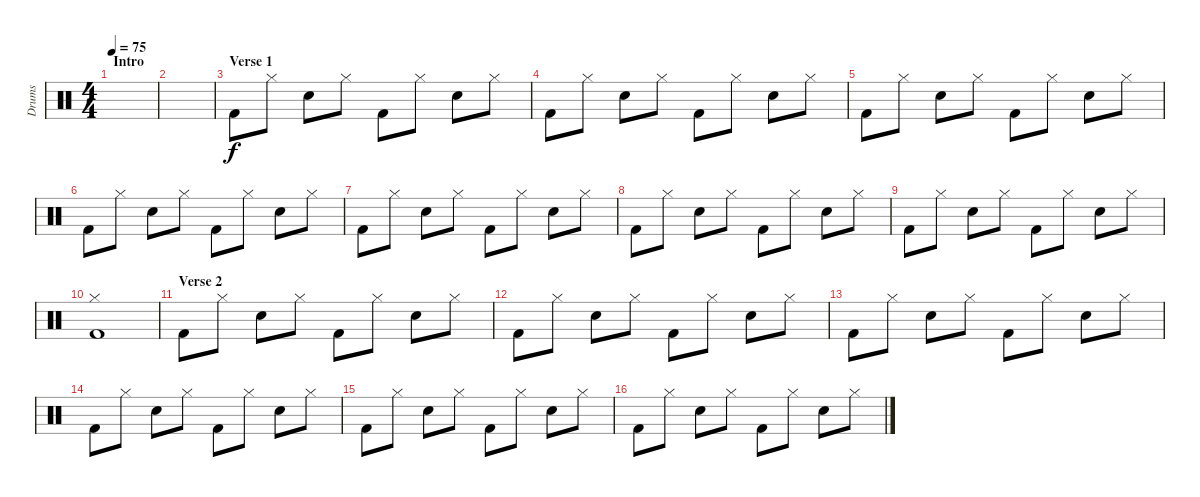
\track ("Drums" "Drums") {instrument percussion}
\staff {score}
\articulation defaults
\ts (4 4)
\section ("" "Intro")
\tempo 75
\clef neutral
\ks c
|
|
\section ("" "Verse 1")
"Kick (hit) 2".8 "Hi-Hat (closed)".8 "Snare (hit) 2".8 "Hi-Hat (closed)".8 "Kick (hit) 2".8 "Hi-Hat (closed)".8 "Snare (hit) 2".8 "Hi-Hat (closed)".8 |
"Kick (hit) 2".8 "Hi-Hat (closed)".8 "Snare (hit) 2".8 "Hi-Hat (closed)".8 "Kick (hit) 2".8 "Hi-Hat (closed)".8 "Snare (hit) 2".8 "Hi-Hat (closed)".8 |
"Kick (hit) 2".8 "Hi-Hat (closed)".8 "Snare (hit) 2".8 "Hi-Hat (closed)".8 "Kick (hit) 2".8 "Hi-Hat (closed)".8 "Snare (hit) 2".8 "Hi-Hat (closed)".8 |
"Kick (hit) 2".8 "Hi-Hat (closed)".8 "Snare (hit) 2".8 "Hi-Hat (closed)".8 "Kick (hit) 2".8 "Hi-Hat (closed)".8 "Snare (hit) 2".8 "Hi-Hat (closed)".8 |
"Kick (hit) 2".8 "Hi-Hat (closed)".8 "Snare (hit) 2".8 "Hi-Hat (closed)".8 "Kick (hit) 2".8 "Hi-Hat (closed)".8 "Snare (hit) 2".8 "Hi-Hat (closed)".8 |
"Kick (hit) 2".8 "Hi-Hat (closed)".8 "Snare (hit) 2".8 "Hi-Hat (closed)".8 "Kick (hit) 2".8 "Hi-Hat (closed)".8 "Snare (hit) 2".8 "Hi-Hat (closed)".8 |
"Kick (hit) 2".8 "Hi-Hat (closed)".8 "Snare (hit) 2".8 "Hi-Hat (closed)".8 "Kick (hit) 2".8 "Hi-Hat (closed)".8 "Snare (hit) 2".8 "Hi-Hat (closed)".8 |
("Kick (hit) 2" "Hi-Hat (closed)").1 |
\section ("" "Verse 2")
"Kick (hit) 2".8 "Hi-Hat (closed)".8 "Snare (hit) 2".8 "Hi-Hat (closed)".8 "Kick (hit) 2".8 "Hi-Hat (closed)".8 "Snare (hit) 2".8 "Hi-Hat (closed)".8 |
"Kick (hit) 2".8 "Hi-Hat (closed)".8 "Snare (hit) 2".8 "Hi-Hat (closed)".8 "Kick (hit) 2".8 "Hi-Hat (closed)".8 "Snare (hit) 2".8 "Hi-Hat (closed)".8 |
"Kick (hit) 2".8 "Hi-Hat (closed)".8 "Snare (hit) 2".8 "Hi-Hat (closed)".8 "Kick (hit) 2".8 "Hi-Hat (closed)".8 "Snare (hit) 2".8 "Hi-Hat (closed)".8 |
"Kick (hit) 2".8 "Hi-Hat (closed)".8 "Snare (hit) 2".8 "Hi-Hat (closed)".8 "Kick (hit) 2".8 "Hi-Hat (closed)".8 "Snare (hit) 2".8 "Hi-Hat (closed)".8 |
"Kick (hit) 2".8 "Hi-Hat (closed)".8 "Snare (hit) 2".8 "Hi-Hat (closed)".8 "Kick (hit) 2".8 "Hi-Hat (closed)".8 "Snare (hit) 2".8 "Hi-Hat (closed)".8 |
"Kick (hit) 2".8 "Hi-Hat (closed)".8 "Snare (hit) 2".8 "Hi-Hat (closed)".8 "Kick (hit) 2".8 "Hi-Hat (closed)".8 "Snare (hit) 2".8 "Hi-Hat (closed)".8
